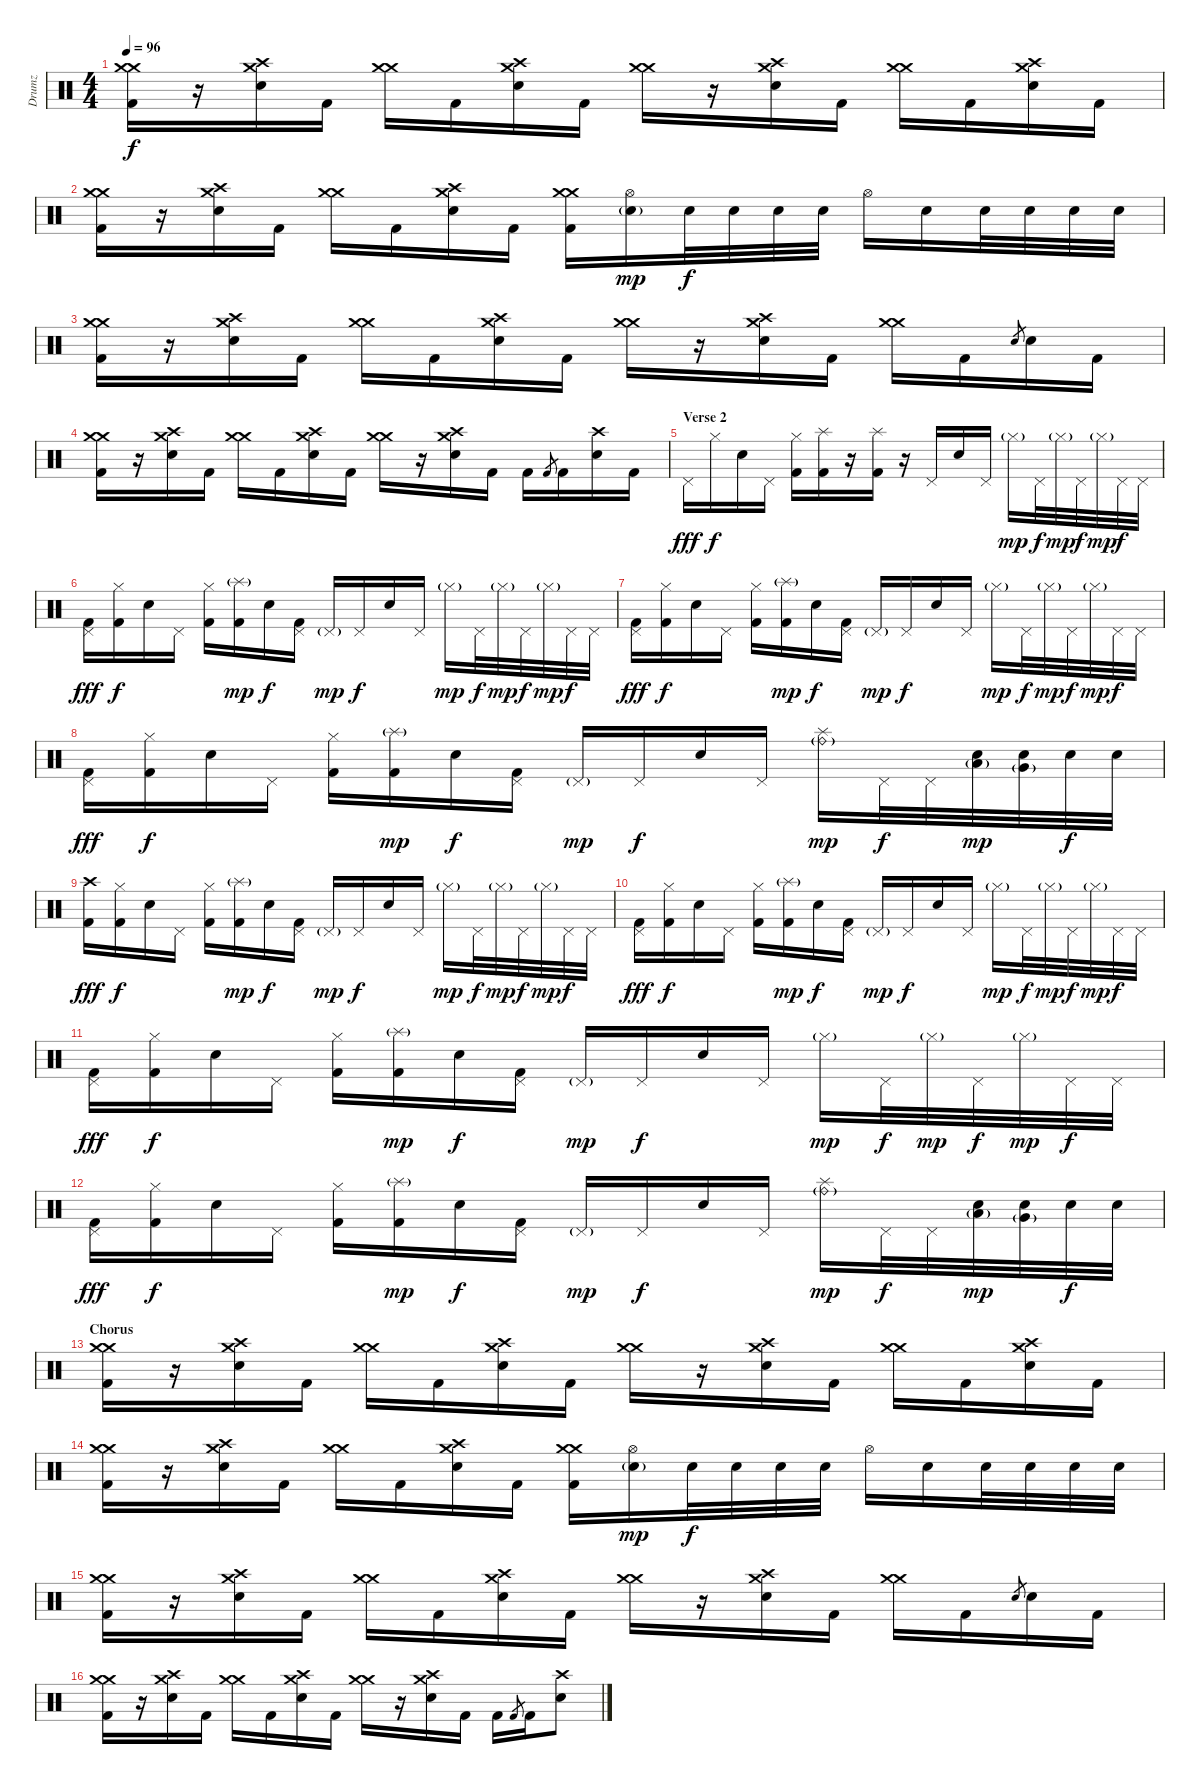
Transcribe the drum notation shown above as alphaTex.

\track ("Drumz" "Drumz") {instrument percussion}
\staff {score}
\articulation defaults
\ts (4 4)
\tempo 96
\clef neutral
\ks c
("Crash medium (hit)" "Crash medium (hit)" "Kick (hit) 2").16{dy f} r.16 ("Crash high (hit)" "Crash medium (hit)" "Electric Snare (hit)").16 "Kick (hit) 2".16 ("Crash medium (hit)" "Crash medium (hit)").16 "Kick (hit) 2".16 ("Crash high (hit)" "Crash medium (hit)" "Electric Snare (hit)").16 "Kick (hit) 2".16 ("Crash medium (hit)" "Crash medium (hit)").16 r.16 ("Crash high (hit)" "Crash medium (hit)" "Electric Snare (hit)").16 "Kick (hit) 2".16 ("Crash medium (hit)" "Crash medium (hit)").16 "Kick (hit) 2".16 ("Crash high (hit)" "Crash medium (hit)" "Electric Snare (hit)").16 "Kick (hit) 2".16 |
("Crash medium (hit)" "Crash medium (hit)" "Kick (hit) 2").16 r.16 ("Crash high (hit)" "Crash medium (hit)" "Electric Snare (hit)").16 "Kick (hit) 2".16 ("Crash medium (hit)" "Crash medium (hit)").16 "Kick (hit) 2".16 ("Crash high (hit)" "Crash medium (hit)" "Electric Snare (hit)").16 "Kick (hit) 2".16 ("Crash medium (hit)" "Crash medium (hit)" "Kick (hit) 2").16 ("Hi-Hat (open)" "Electric Snare (hit)"{g}).16{dy mp} "Electric Snare (hit)".32{dy f} "Electric Snare (hit)".32 "Electric Snare (hit)".32 "Electric Snare (hit)".32 "Hi-Hat (open)".16 "Electric Snare (hit)".16 "Electric Snare (hit)".32 "Electric Snare (hit)".32 "Electric Snare (hit)".32 "Electric Snare (hit)".32 |
("Crash medium (hit)" "Crash medium (hit)" "Kick (hit) 2").16 r.16 ("Crash high (hit)" "Crash medium (hit)" "Electric Snare (hit)").16 "Kick (hit) 2".16 ("Crash medium (hit)" "Crash medium (hit)").16 "Kick (hit) 2".16 ("Crash high (hit)" "Crash medium (hit)" "Electric Snare (hit)").16 "Kick (hit) 2".16 ("Crash medium (hit)" "Crash medium (hit)").16 r.16 ("Crash high (hit)" "Crash medium (hit)" "Electric Snare (hit)").16 "Kick (hit) 2".16 ("Crash medium (hit)" "Crash medium (hit)").16 "Kick (hit) 2".16 "Electric Snare (hit)".8{gr} "Electric Snare (hit)".16 "Kick (hit) 2".16 |
("Crash medium (hit)" "Crash medium (hit)" "Kick (hit) 2").16 r.16 ("Crash high (hit)" "Crash medium (hit)" "Electric Snare (hit)").16 "Kick (hit) 2".16 ("Crash medium (hit)" "Crash medium (hit)").16 "Kick (hit) 2".16 ("Crash high (hit)" "Crash medium (hit)" "Electric Snare (hit)").16 "Kick (hit) 2".16 ("Crash medium (hit)" "Crash medium (hit)").16 r.16 ("Crash high (hit)" "Crash medium (hit)" "Electric Snare (hit)").16 "Kick (hit) 2".16 "Kick (hit) 2".16 "Kick (hit) 2".8{gr} "Kick (hit) 2".16 ("Crash high (hit)" "Electric Snare (hit)").16 "Kick (hit) 2".16 |
\section ("" "Verse 2")
"Pedal Hi-Hat (hit)".16{dy fff} "Hi-Hat (closed)".16{dy f} "Electric Snare (hit)".16 "Pedal Hi-Hat (hit)".16 ("Hi-Hat (closed)" "Kick (hit) 2").16 ("Splash (hit)" "Kick (hit) 2").16 r.16 ("Splash (hit)" "Kick (hit) 2").16 r.16 "Pedal Hi-Hat (hit)".16 "Electric Snare (hit)".16 "Pedal Hi-Hat (hit)".16 "Hi-Hat (closed)"{g}.16{dy mp} "Pedal Hi-Hat (hit)".32{dy f} "Hi-Hat (closed)"{g}.32{dy mp} "Pedal Hi-Hat (hit)".32{dy f} "Hi-Hat (closed)"{g}.32{dy mp} "Pedal Hi-Hat (hit)".32{dy f} "Pedal Hi-Hat (hit)".32 |
("Pedal Hi-Hat (hit)" "Kick (hit) 2").16{dy fff} ("Hi-Hat (closed)" "Kick (hit) 2").16{dy f} "Electric Snare (hit)".16 "Pedal Hi-Hat (hit)".16 ("Hi-Hat (closed)" "Kick (hit) 2").16 ("Splash (hit)"{g} "Kick (hit) 2").16{dy mp} "Electric Snare (hit)".16{dy f} ("Pedal Hi-Hat (hit)" "Kick (hit) 2").16 "Pedal Hi-Hat (hit)"{g}.16{dy mp} "Pedal Hi-Hat (hit)".16{dy f} "Electric Snare (hit)".16 "Pedal Hi-Hat (hit)".16 "Hi-Hat (closed)"{g}.16{dy mp} "Pedal Hi-Hat (hit)".32{dy f} "Hi-Hat (closed)"{g}.32{dy mp} "Pedal Hi-Hat (hit)".32{dy f} "Hi-Hat (closed)"{g}.32{dy mp} "Pedal Hi-Hat (hit)".32{dy f} "Pedal Hi-Hat (hit)".32 |
("Pedal Hi-Hat (hit)" "Kick (hit) 2").16{dy fff} ("Hi-Hat (closed)" "Kick (hit) 2").16{dy f} "Electric Snare (hit)".16 "Pedal Hi-Hat (hit)".16 ("Hi-Hat (closed)" "Kick (hit) 2").16 ("Splash (hit)"{g} "Kick (hit) 2").16{dy mp} "Electric Snare (hit)".16{dy f} ("Pedal Hi-Hat (hit)" "Kick (hit) 2").16 "Pedal Hi-Hat (hit)"{g}.16{dy mp} "Pedal Hi-Hat (hit)".16{dy f} "Electric Snare (hit)".16 "Pedal Hi-Hat (hit)".16 "Hi-Hat (closed)"{g}.16{dy mp} "Pedal Hi-Hat (hit)".32{dy f} "Hi-Hat (closed)"{g}.32{dy mp} "Pedal Hi-Hat (hit)".32{dy f} "Hi-Hat (closed)"{g}.32{dy mp} "Pedal Hi-Hat (hit)".32{dy f} "Pedal Hi-Hat (hit)".32 |
("Pedal Hi-Hat (hit)" "Kick (hit) 2").16{dy fff} ("Hi-Hat (closed)" "Kick (hit) 2").16{dy f} "Electric Snare (hit)".16 "Pedal Hi-Hat (hit)".16 ("Hi-Hat (closed)" "Kick (hit) 2").16 ("Splash (hit)"{g} "Kick (hit) 2").16{dy mp} "Electric Snare (hit)".16{dy f} ("Pedal Hi-Hat (hit)" "Kick (hit) 2").16 "Pedal Hi-Hat (hit)"{g}.16{dy mp} "Pedal Hi-Hat (hit)".16{dy f} "Electric Snare (hit)".16 "Pedal Hi-Hat (hit)".16 ("Ride (bell)"{g} "Splash (hit)").16{dy mp} "Pedal Hi-Hat (hit)".32{dy f} "Pedal Hi-Hat (hit)".32 ("Low Floor Tom (hit)"{g} "Electric Snare (hit)").32{dy mp} ("Very Low Tom (hit)"{g} "Electric Snare (hit)").32 "Electric Snare (hit)".32{dy f} "Electric Snare (hit)".32 |
("Crash high (hit)" "Kick (hit) 2").16{dy fff} ("Hi-Hat (closed)" "Kick (hit) 2").16{dy f} "Electric Snare (hit)".16 "Pedal Hi-Hat (hit)".16 ("Hi-Hat (closed)" "Kick (hit) 2").16 ("Splash (hit)"{g} "Kick (hit) 2").16{dy mp} "Electric Snare (hit)".16{dy f} ("Pedal Hi-Hat (hit)" "Kick (hit) 2").16 "Pedal Hi-Hat (hit)"{g}.16{dy mp} "Pedal Hi-Hat (hit)".16{dy f} "Electric Snare (hit)".16 "Pedal Hi-Hat (hit)".16 "Hi-Hat (closed)"{g}.16{dy mp} "Pedal Hi-Hat (hit)".32{dy f} "Hi-Hat (closed)"{g}.32{dy mp} "Pedal Hi-Hat (hit)".32{dy f} "Hi-Hat (closed)"{g}.32{dy mp} "Pedal Hi-Hat (hit)".32{dy f} "Pedal Hi-Hat (hit)".32 |
("Pedal Hi-Hat (hit)" "Kick (hit) 2").16{dy fff} ("Hi-Hat (closed)" "Kick (hit) 2").16{dy f} "Electric Snare (hit)".16 "Pedal Hi-Hat (hit)".16 ("Hi-Hat (closed)" "Kick (hit) 2").16 ("Splash (hit)"{g} "Kick (hit) 2").16{dy mp} "Electric Snare (hit)".16{dy f} ("Pedal Hi-Hat (hit)" "Kick (hit) 2").16 "Pedal Hi-Hat (hit)"{g}.16{dy mp} "Pedal Hi-Hat (hit)".16{dy f} "Electric Snare (hit)".16 "Pedal Hi-Hat (hit)".16 "Hi-Hat (closed)"{g}.16{dy mp} "Pedal Hi-Hat (hit)".32{dy f} "Hi-Hat (closed)"{g}.32{dy mp} "Pedal Hi-Hat (hit)".32{dy f} "Hi-Hat (closed)"{g}.32{dy mp} "Pedal Hi-Hat (hit)".32{dy f} "Pedal Hi-Hat (hit)".32 |
("Pedal Hi-Hat (hit)" "Kick (hit) 2").16{dy fff} ("Hi-Hat (closed)" "Kick (hit) 2").16{dy f} "Electric Snare (hit)".16 "Pedal Hi-Hat (hit)".16 ("Hi-Hat (closed)" "Kick (hit) 2").16 ("Splash (hit)"{g} "Kick (hit) 2").16{dy mp} "Electric Snare (hit)".16{dy f} ("Pedal Hi-Hat (hit)" "Kick (hit) 2").16 "Pedal Hi-Hat (hit)"{g}.16{dy mp} "Pedal Hi-Hat (hit)".16{dy f} "Electric Snare (hit)".16 "Pedal Hi-Hat (hit)".16 "Hi-Hat (closed)"{g}.16{dy mp} "Pedal Hi-Hat (hit)".32{dy f} "Hi-Hat (closed)"{g}.32{dy mp} "Pedal Hi-Hat (hit)".32{dy f} "Hi-Hat (closed)"{g}.32{dy mp} "Pedal Hi-Hat (hit)".32{dy f} "Pedal Hi-Hat (hit)".32 |
("Pedal Hi-Hat (hit)" "Kick (hit) 2").16{dy fff} ("Hi-Hat (closed)" "Kick (hit) 2").16{dy f} "Electric Snare (hit)".16 "Pedal Hi-Hat (hit)".16 ("Hi-Hat (closed)" "Kick (hit) 2").16 ("Splash (hit)"{g} "Kick (hit) 2").16{dy mp} "Electric Snare (hit)".16{dy f} ("Pedal Hi-Hat (hit)" "Kick (hit) 2").16 "Pedal Hi-Hat (hit)"{g}.16{dy mp} "Pedal Hi-Hat (hit)".16{dy f} "Electric Snare (hit)".16 "Pedal Hi-Hat (hit)".16 ("Ride (bell)"{g} "Splash (hit)").16{dy mp} "Pedal Hi-Hat (hit)".32{dy f} "Pedal Hi-Hat (hit)".32 ("Low Floor Tom (hit)"{g} "Electric Snare (hit)").32{dy mp} ("Very Low Tom (hit)"{g} "Electric Snare (hit)").32 "Electric Snare (hit)".32{dy f} "Electric Snare (hit)".32 |
\section ("" "Chorus")
("Crash medium (hit)" "Crash medium (hit)" "Kick (hit) 2").16 r.16 ("Crash high (hit)" "Crash medium (hit)" "Electric Snare (hit)").16 "Kick (hit) 2".16 ("Crash medium (hit)" "Crash medium (hit)").16 "Kick (hit) 2".16 ("Crash high (hit)" "Crash medium (hit)" "Electric Snare (hit)").16 "Kick (hit) 2".16 ("Crash medium (hit)" "Crash medium (hit)").16 r.16 ("Crash high (hit)" "Crash medium (hit)" "Electric Snare (hit)").16 "Kick (hit) 2".16 ("Crash medium (hit)" "Crash medium (hit)").16 "Kick (hit) 2".16 ("Crash high (hit)" "Crash medium (hit)" "Electric Snare (hit)").16 "Kick (hit) 2".16 |
("Crash medium (hit)" "Crash medium (hit)" "Kick (hit) 2").16 r.16 ("Crash high (hit)" "Crash medium (hit)" "Electric Snare (hit)").16 "Kick (hit) 2".16 ("Crash medium (hit)" "Crash medium (hit)").16 "Kick (hit) 2".16 ("Crash high (hit)" "Crash medium (hit)" "Electric Snare (hit)").16 "Kick (hit) 2".16 ("Crash medium (hit)" "Crash medium (hit)" "Kick (hit) 2").16 ("Hi-Hat (open)" "Electric Snare (hit)"{g}).16{dy mp} "Electric Snare (hit)".32{dy f} "Electric Snare (hit)".32 "Electric Snare (hit)".32 "Electric Snare (hit)".32 "Hi-Hat (open)".16 "Electric Snare (hit)".16 "Electric Snare (hit)".32 "Electric Snare (hit)".32 "Electric Snare (hit)".32 "Electric Snare (hit)".32 |
("Crash medium (hit)" "Crash medium (hit)" "Kick (hit) 2").16 r.16 ("Crash high (hit)" "Crash medium (hit)" "Electric Snare (hit)").16 "Kick (hit) 2".16 ("Crash medium (hit)" "Crash medium (hit)").16 "Kick (hit) 2".16 ("Crash high (hit)" "Crash medium (hit)" "Electric Snare (hit)").16 "Kick (hit) 2".16 ("Crash medium (hit)" "Crash medium (hit)").16 r.16 ("Crash high (hit)" "Crash medium (hit)" "Electric Snare (hit)").16 "Kick (hit) 2".16 ("Crash medium (hit)" "Crash medium (hit)").16 "Kick (hit) 2".16 "Electric Snare (hit)".8{gr} "Electric Snare (hit)".16 "Kick (hit) 2".16 |
("Crash medium (hit)" "Crash medium (hit)" "Kick (hit) 2").16 r.16 ("Crash high (hit)" "Crash medium (hit)" "Electric Snare (hit)").16 "Kick (hit) 2".16 ("Crash medium (hit)" "Crash medium (hit)").16 "Kick (hit) 2".16 ("Crash high (hit)" "Crash medium (hit)" "Electric Snare (hit)").16 "Kick (hit) 2".16 ("Crash medium (hit)" "Crash medium (hit)").16 r.16 ("Crash high (hit)" "Crash medium (hit)" "Electric Snare (hit)").16 "Kick (hit) 2".16 "Kick (hit) 2".16 "Kick (hit) 2".8{gr} "Kick (hit) 2".16 ("Crash high (hit)" "Electric Snare (hit)").8
